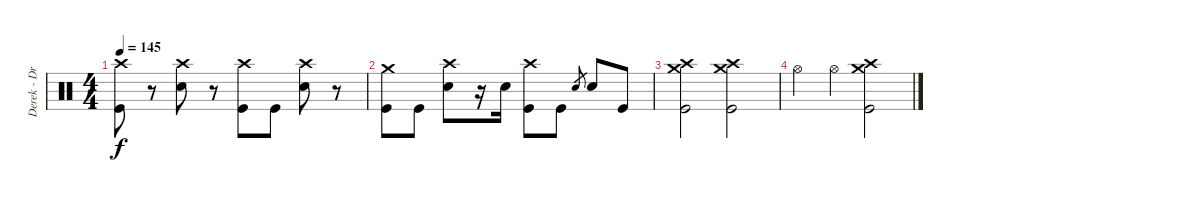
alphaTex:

\track ("Derek - Drums" "Derek - Dr") {instrument percussion}
\staff {score}
\articulation defaults
\ts (4 4)
\tempo 145
\clef neutral
\ks c
("Crash high (hit)" "Kick (hit)").8{dy f} r.8 ("Crash high (hit)" "Electric Snare (hit)").8 r.8 ("Crash high (hit)" "Kick (hit)").8 "Kick (hit)".8 ("Crash high (hit)" "Electric Snare (hit)").8 r.8 |
("Crash medium (hit)" "Kick (hit)").8 "Kick (hit)".8 ("Crash high (hit)" "Electric Snare (hit)").8 r.16 "Electric Snare (hit)".16 ("Crash high (hit)" "Kick (hit)").8 "Kick (hit)".8 "Electric Snare (hit)".8{gr} "Electric Snare (hit)".8 "Kick (hit)".8 |
("Crash high (hit)" "Crash medium (hit)" "Kick (hit)").2 ("Crash high (hit)" "Crash medium (hit)" "Kick (hit)").2 |
"Hi-Hat (open)".4 "Hi-Hat (open)".4 ("Crash high (hit)" "Crash medium (hit)" "Kick (hit)").2
